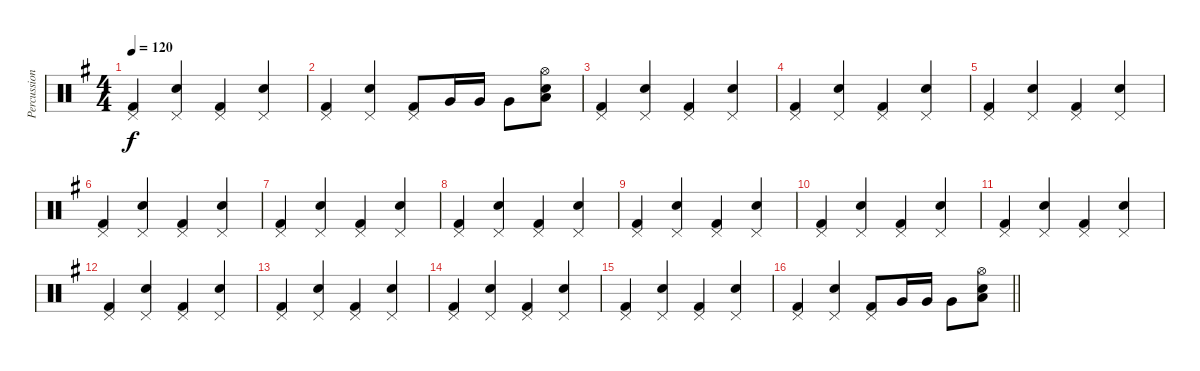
\track ("Percussion" "Percussion") {instrument percussion}
\staff {score}
\articulation defaults
\ts (4 4)
\tempo 120
\clef neutral
\ks eminor
("Kick (hit) 2" "Pedal Hi-Hat (hit)").4{dy f} ("Snare (hit) 2" "Pedal Hi-Hat (hit)").4 ("Kick (hit) 2" "Pedal Hi-Hat (hit)").4 ("Snare (hit) 2" "Pedal Hi-Hat (hit)").4 |
("Kick (hit) 2" "Pedal Hi-Hat (hit)").4 ("Snare (hit) 2" "Pedal Hi-Hat (hit)").4 ("Kick (hit) 2" "Pedal Hi-Hat (hit)").8 "Very Low Tom (hit)".16 "Very Low Tom (hit)".16 "Very Low Tom (hit)".8 ("Snare (hit) 2" "Low Floor Tom (hit)" "Hi-Hat (open)").8 |
("Kick (hit) 2" "Pedal Hi-Hat (hit)").4 ("Snare (hit) 2" "Pedal Hi-Hat (hit)").4 ("Kick (hit) 2" "Pedal Hi-Hat (hit)").4 ("Snare (hit) 2" "Pedal Hi-Hat (hit)").4 |
("Kick (hit) 2" "Pedal Hi-Hat (hit)").4 ("Snare (hit) 2" "Pedal Hi-Hat (hit)").4 ("Kick (hit) 2" "Pedal Hi-Hat (hit)").4 ("Snare (hit) 2" "Pedal Hi-Hat (hit)").4 |
("Kick (hit) 2" "Pedal Hi-Hat (hit)").4 ("Snare (hit) 2" "Pedal Hi-Hat (hit)").4 ("Kick (hit) 2" "Pedal Hi-Hat (hit)").4 ("Snare (hit) 2" "Pedal Hi-Hat (hit)").4 |
("Kick (hit) 2" "Pedal Hi-Hat (hit)").4 ("Snare (hit) 2" "Pedal Hi-Hat (hit)").4 ("Kick (hit) 2" "Pedal Hi-Hat (hit)").4 ("Snare (hit) 2" "Pedal Hi-Hat (hit)").4 |
("Kick (hit) 2" "Pedal Hi-Hat (hit)").4 ("Snare (hit) 2" "Pedal Hi-Hat (hit)").4 ("Kick (hit) 2" "Pedal Hi-Hat (hit)").4 ("Snare (hit) 2" "Pedal Hi-Hat (hit)").4 |
("Kick (hit) 2" "Pedal Hi-Hat (hit)").4 ("Snare (hit) 2" "Pedal Hi-Hat (hit)").4 ("Kick (hit) 2" "Pedal Hi-Hat (hit)").4 ("Snare (hit) 2" "Pedal Hi-Hat (hit)").4 |
("Kick (hit) 2" "Pedal Hi-Hat (hit)").4 ("Snare (hit) 2" "Pedal Hi-Hat (hit)").4 ("Kick (hit) 2" "Pedal Hi-Hat (hit)").4 ("Snare (hit) 2" "Pedal Hi-Hat (hit)").4 |
("Kick (hit) 2" "Pedal Hi-Hat (hit)").4 ("Snare (hit) 2" "Pedal Hi-Hat (hit)").4 ("Kick (hit) 2" "Pedal Hi-Hat (hit)").4 ("Snare (hit) 2" "Pedal Hi-Hat (hit)").4 |
("Kick (hit) 2" "Pedal Hi-Hat (hit)").4 ("Snare (hit) 2" "Pedal Hi-Hat (hit)").4 ("Kick (hit) 2" "Pedal Hi-Hat (hit)").4 ("Snare (hit) 2" "Pedal Hi-Hat (hit)").4 |
("Kick (hit) 2" "Pedal Hi-Hat (hit)").4 ("Snare (hit) 2" "Pedal Hi-Hat (hit)").4 ("Kick (hit) 2" "Pedal Hi-Hat (hit)").4 ("Snare (hit) 2" "Pedal Hi-Hat (hit)").4 |
("Kick (hit) 2" "Pedal Hi-Hat (hit)").4 ("Snare (hit) 2" "Pedal Hi-Hat (hit)").4 ("Kick (hit) 2" "Pedal Hi-Hat (hit)").4 ("Snare (hit) 2" "Pedal Hi-Hat (hit)").4 |
("Kick (hit) 2" "Pedal Hi-Hat (hit)").4 ("Snare (hit) 2" "Pedal Hi-Hat (hit)").4 ("Kick (hit) 2" "Pedal Hi-Hat (hit)").4 ("Snare (hit) 2" "Pedal Hi-Hat (hit)").4 |
("Kick (hit) 2" "Pedal Hi-Hat (hit)").4 ("Snare (hit) 2" "Pedal Hi-Hat (hit)").4 ("Kick (hit) 2" "Pedal Hi-Hat (hit)").4 ("Snare (hit) 2" "Pedal Hi-Hat (hit)").4 |
\barLineRight lightlight
("Kick (hit) 2" "Pedal Hi-Hat (hit)").4 ("Snare (hit) 2" "Pedal Hi-Hat (hit)").4 ("Kick (hit) 2" "Pedal Hi-Hat (hit)").8 "Very Low Tom (hit)".16 "Very Low Tom (hit)".16 "Very Low Tom (hit)".8 ("Snare (hit) 2" "Low Floor Tom (hit)" "Hi-Hat (open)").8
